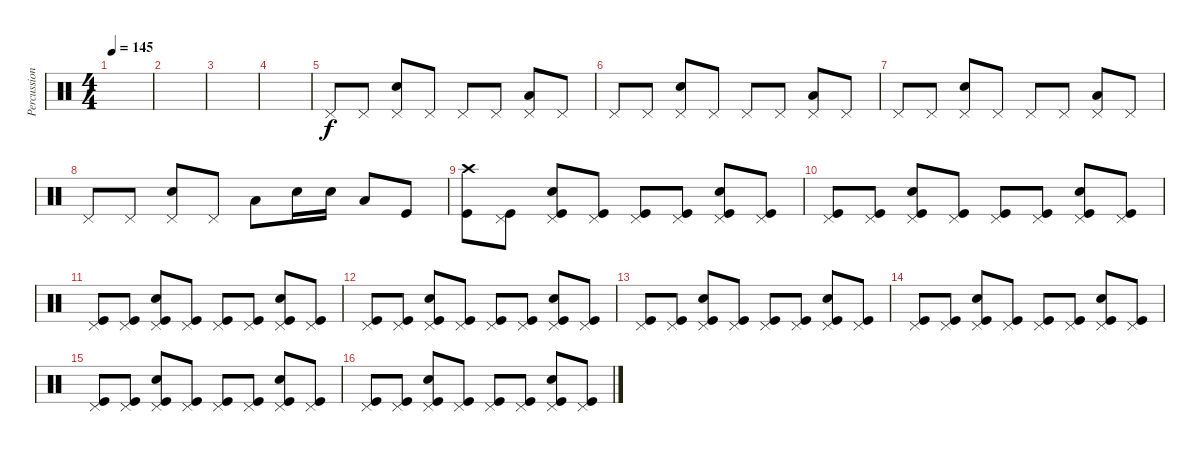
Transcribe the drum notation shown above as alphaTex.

\track ("Percussion" "Percussion") {instrument percussion}
\staff {score}
\articulation defaults
\ts (4 4)
\tempo 145
\clef neutral
\ks c
|
|
|
|
"Pedal Hi-Hat (hit)".8 "Pedal Hi-Hat (hit)".8 ("Pedal Hi-Hat (hit)" "Snare (hit) 2").8 "Pedal Hi-Hat (hit)".8 "Pedal Hi-Hat (hit)".8 "Pedal Hi-Hat (hit)".8 ("Pedal Hi-Hat (hit)" "Low Floor Tom (hit)").8 "Pedal Hi-Hat (hit)".8 |
"Pedal Hi-Hat (hit)".8 "Pedal Hi-Hat (hit)".8 ("Pedal Hi-Hat (hit)" "Snare (hit) 2").8 "Pedal Hi-Hat (hit)".8 "Pedal Hi-Hat (hit)".8 "Pedal Hi-Hat (hit)".8 ("Pedal Hi-Hat (hit)" "Low Floor Tom (hit)").8 "Pedal Hi-Hat (hit)".8 |
"Pedal Hi-Hat (hit)".8 "Pedal Hi-Hat (hit)".8 ("Pedal Hi-Hat (hit)" "Snare (hit) 2").8 "Pedal Hi-Hat (hit)".8 "Pedal Hi-Hat (hit)".8 "Pedal Hi-Hat (hit)".8 ("Pedal Hi-Hat (hit)" "Low Floor Tom (hit)").8 "Pedal Hi-Hat (hit)".8 |
"Pedal Hi-Hat (hit)".8 "Pedal Hi-Hat (hit)".8 ("Pedal Hi-Hat (hit)" "Snare (hit) 2").8 "Pedal Hi-Hat (hit)".8 "Low Tom (hit)".8 "Snare (hit) 2".16 "Snare (hit) 2".16 "Low Tom (hit)".8 "Kick (hit)".8 |
("Crash high (hit)" "Kick (hit)").8 ("Pedal Hi-Hat (hit)" "Kick (hit)").8 ("Pedal Hi-Hat (hit)" "Snare (hit) 2" "Kick (hit)").8 ("Pedal Hi-Hat (hit)" "Kick (hit)").8 ("Pedal Hi-Hat (hit)" "Kick (hit)").8 ("Pedal Hi-Hat (hit)" "Kick (hit)").8 ("Pedal Hi-Hat (hit)" "Snare (hit) 2" "Kick (hit)").8 ("Pedal Hi-Hat (hit)" "Kick (hit)").8 |
("Pedal Hi-Hat (hit)" "Kick (hit)").8 ("Pedal Hi-Hat (hit)" "Kick (hit)").8 ("Pedal Hi-Hat (hit)" "Snare (hit) 2" "Kick (hit)").8 ("Pedal Hi-Hat (hit)" "Kick (hit)").8 ("Pedal Hi-Hat (hit)" "Kick (hit)").8 ("Pedal Hi-Hat (hit)" "Kick (hit)").8 ("Pedal Hi-Hat (hit)" "Snare (hit) 2" "Kick (hit)").8 ("Pedal Hi-Hat (hit)" "Kick (hit)").8 |
("Pedal Hi-Hat (hit)" "Kick (hit)").8 ("Pedal Hi-Hat (hit)" "Kick (hit)").8 ("Pedal Hi-Hat (hit)" "Snare (hit) 2" "Kick (hit)").8 ("Pedal Hi-Hat (hit)" "Kick (hit)").8 ("Pedal Hi-Hat (hit)" "Kick (hit)").8 ("Pedal Hi-Hat (hit)" "Kick (hit)").8 ("Pedal Hi-Hat (hit)" "Snare (hit) 2" "Kick (hit)").8 ("Pedal Hi-Hat (hit)" "Kick (hit)").8 |
("Pedal Hi-Hat (hit)" "Kick (hit)").8 ("Pedal Hi-Hat (hit)" "Kick (hit)").8 ("Pedal Hi-Hat (hit)" "Snare (hit) 2" "Kick (hit)").8 ("Pedal Hi-Hat (hit)" "Kick (hit)").8 ("Pedal Hi-Hat (hit)" "Kick (hit)").8 ("Pedal Hi-Hat (hit)" "Kick (hit)").8 ("Pedal Hi-Hat (hit)" "Snare (hit) 2" "Kick (hit)").8 ("Pedal Hi-Hat (hit)" "Kick (hit)").8 |
("Pedal Hi-Hat (hit)" "Kick (hit)").8 ("Pedal Hi-Hat (hit)" "Kick (hit)").8 ("Pedal Hi-Hat (hit)" "Snare (hit) 2" "Kick (hit)").8 ("Pedal Hi-Hat (hit)" "Kick (hit)").8 ("Pedal Hi-Hat (hit)" "Kick (hit)").8 ("Pedal Hi-Hat (hit)" "Kick (hit)").8 ("Pedal Hi-Hat (hit)" "Snare (hit) 2" "Kick (hit)").8 ("Pedal Hi-Hat (hit)" "Kick (hit)").8 |
("Pedal Hi-Hat (hit)" "Kick (hit)").8 ("Pedal Hi-Hat (hit)" "Kick (hit)").8 ("Pedal Hi-Hat (hit)" "Snare (hit) 2" "Kick (hit)").8 ("Pedal Hi-Hat (hit)" "Kick (hit)").8 ("Pedal Hi-Hat (hit)" "Kick (hit)").8 ("Pedal Hi-Hat (hit)" "Kick (hit)").8 ("Pedal Hi-Hat (hit)" "Snare (hit) 2" "Kick (hit)").8 ("Pedal Hi-Hat (hit)" "Kick (hit)").8 |
("Pedal Hi-Hat (hit)" "Kick (hit)").8 ("Pedal Hi-Hat (hit)" "Kick (hit)").8 ("Pedal Hi-Hat (hit)" "Snare (hit) 2" "Kick (hit)").8 ("Pedal Hi-Hat (hit)" "Kick (hit)").8 ("Pedal Hi-Hat (hit)" "Kick (hit)").8 ("Pedal Hi-Hat (hit)" "Kick (hit)").8 ("Pedal Hi-Hat (hit)" "Snare (hit) 2" "Kick (hit)").8 ("Pedal Hi-Hat (hit)" "Kick (hit)").8 |
("Pedal Hi-Hat (hit)" "Kick (hit)").8 ("Pedal Hi-Hat (hit)" "Kick (hit)").8 ("Pedal Hi-Hat (hit)" "Snare (hit) 2" "Kick (hit)").8 ("Pedal Hi-Hat (hit)" "Kick (hit)").8 ("Pedal Hi-Hat (hit)" "Kick (hit)").8 ("Pedal Hi-Hat (hit)" "Kick (hit)").8 ("Pedal Hi-Hat (hit)" "Snare (hit) 2" "Kick (hit)").8 ("Pedal Hi-Hat (hit)" "Kick (hit)").8
